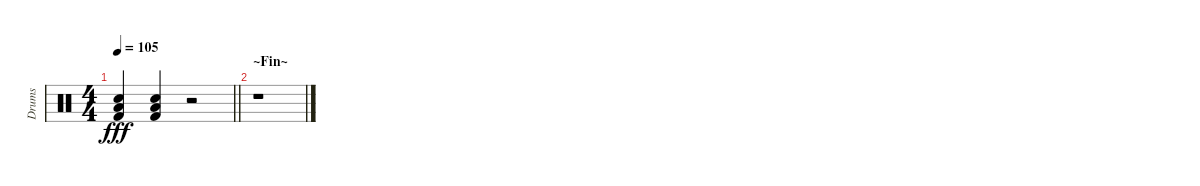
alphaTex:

\track ("Drums" "Drums") {instrument percussion}
\staff {score}
\articulation defaults
\ts (4 4)
\tempo 105
\clef neutral
\barLineRight lightlight
\ks c
("Low Floor Tom (hit)" "Electric Snare (hit)" "Kick (hit) 2").4{dy fff} ("Low Floor Tom (hit)" "Electric Snare (hit)" "Kick (hit) 2").4 r.2 |
\section ("" "~Fin~")
r.1
